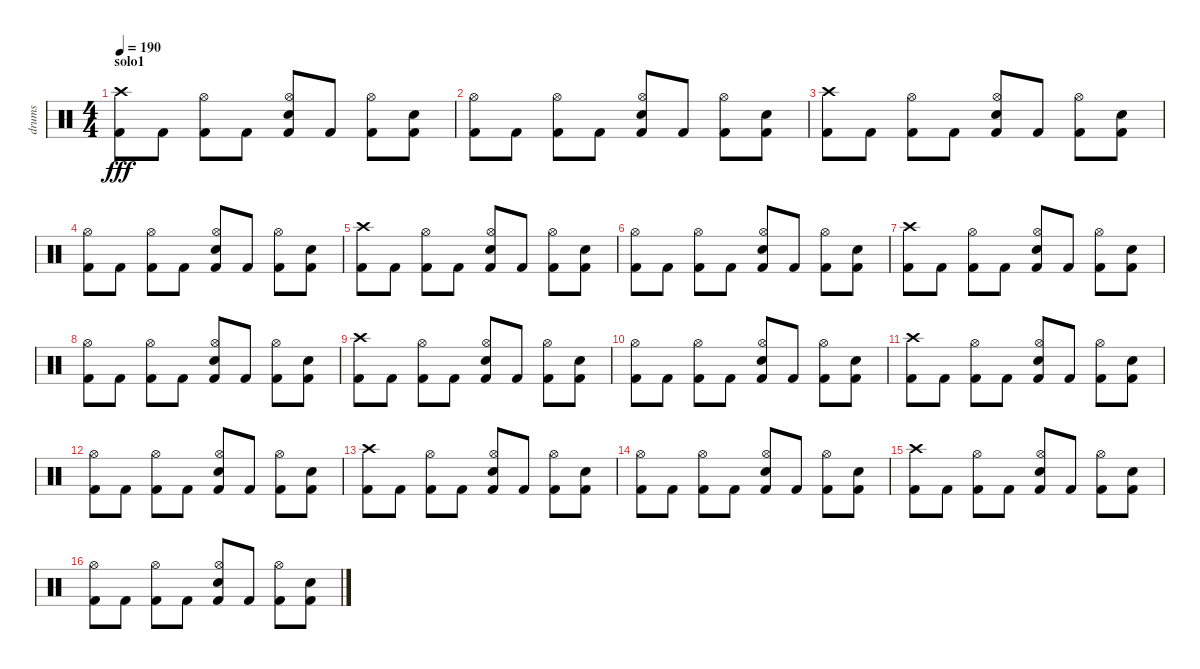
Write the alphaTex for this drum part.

\track ("drums" "drums") {instrument percussion}
\staff {score}
\articulation defaults
\ts (4 4)
\section ("" "solo1")
\tempo 190
\clef neutral
\ks c
("Crash high (hit)" "Kick (hit) 2").8{dy fff} "Kick (hit) 2".8 ("Hi-Hat (open)" "Kick (hit) 2").8 "Kick (hit) 2".8 ("Hi-Hat (open)" "Snare (hit) 2" "Kick (hit) 2").8 "Kick (hit) 2".8 ("Hi-Hat (open)" "Kick (hit) 2").8 ("Snare (hit) 2" "Kick (hit) 2").8 |
("Hi-Hat (open)" "Kick (hit) 2").8 "Kick (hit) 2".8 ("Hi-Hat (open)" "Kick (hit) 2").8 "Kick (hit) 2".8 ("Hi-Hat (open)" "Snare (hit) 2" "Kick (hit) 2").8 "Kick (hit) 2".8 ("Hi-Hat (open)" "Kick (hit) 2").8 ("Snare (hit) 2" "Kick (hit) 2").8 |
("Crash high (hit)" "Kick (hit) 2").8 "Kick (hit) 2".8 ("Hi-Hat (open)" "Kick (hit) 2").8 "Kick (hit) 2".8 ("Hi-Hat (open)" "Snare (hit) 2" "Kick (hit) 2").8 "Kick (hit) 2".8 ("Hi-Hat (open)" "Kick (hit) 2").8 ("Snare (hit) 2" "Kick (hit) 2").8 |
("Hi-Hat (open)" "Kick (hit) 2").8 "Kick (hit) 2".8 ("Hi-Hat (open)" "Kick (hit) 2").8 "Kick (hit) 2".8 ("Hi-Hat (open)" "Snare (hit) 2" "Kick (hit) 2").8 "Kick (hit) 2".8 ("Hi-Hat (open)" "Kick (hit) 2").8 ("Snare (hit) 2" "Kick (hit) 2").8 |
("Crash high (hit)" "Kick (hit) 2").8 "Kick (hit) 2".8 ("Hi-Hat (open)" "Kick (hit) 2").8 "Kick (hit) 2".8 ("Hi-Hat (open)" "Snare (hit) 2" "Kick (hit) 2").8 "Kick (hit) 2".8 ("Hi-Hat (open)" "Kick (hit) 2").8 ("Snare (hit) 2" "Kick (hit) 2").8 |
("Hi-Hat (open)" "Kick (hit) 2").8 "Kick (hit) 2".8 ("Hi-Hat (open)" "Kick (hit) 2").8 "Kick (hit) 2".8 ("Hi-Hat (open)" "Snare (hit) 2" "Kick (hit) 2").8 "Kick (hit) 2".8 ("Hi-Hat (open)" "Kick (hit) 2").8 ("Snare (hit) 2" "Kick (hit) 2").8 |
("Crash high (hit)" "Kick (hit) 2").8 "Kick (hit) 2".8 ("Hi-Hat (open)" "Kick (hit) 2").8 "Kick (hit) 2".8 ("Hi-Hat (open)" "Snare (hit) 2" "Kick (hit) 2").8 "Kick (hit) 2".8 ("Hi-Hat (open)" "Kick (hit) 2").8 ("Snare (hit) 2" "Kick (hit) 2").8 |
("Hi-Hat (open)" "Kick (hit) 2").8 "Kick (hit) 2".8 ("Hi-Hat (open)" "Kick (hit) 2").8 "Kick (hit) 2".8 ("Hi-Hat (open)" "Snare (hit) 2" "Kick (hit) 2").8 "Kick (hit) 2".8 ("Hi-Hat (open)" "Kick (hit) 2").8 ("Snare (hit) 2" "Kick (hit) 2").8 |
("Crash high (hit)" "Kick (hit) 2").8 "Kick (hit) 2".8 ("Hi-Hat (open)" "Kick (hit) 2").8 "Kick (hit) 2".8 ("Hi-Hat (open)" "Snare (hit) 2" "Kick (hit) 2").8 "Kick (hit) 2".8 ("Hi-Hat (open)" "Kick (hit) 2").8 ("Snare (hit) 2" "Kick (hit) 2").8 |
("Hi-Hat (open)" "Kick (hit) 2").8 "Kick (hit) 2".8 ("Hi-Hat (open)" "Kick (hit) 2").8 "Kick (hit) 2".8 ("Hi-Hat (open)" "Snare (hit) 2" "Kick (hit) 2").8 "Kick (hit) 2".8 ("Hi-Hat (open)" "Kick (hit) 2").8 ("Snare (hit) 2" "Kick (hit) 2").8 |
("Crash high (hit)" "Kick (hit) 2").8 "Kick (hit) 2".8 ("Hi-Hat (open)" "Kick (hit) 2").8 "Kick (hit) 2".8 ("Hi-Hat (open)" "Snare (hit) 2" "Kick (hit) 2").8 "Kick (hit) 2".8 ("Hi-Hat (open)" "Kick (hit) 2").8 ("Snare (hit) 2" "Kick (hit) 2").8 |
("Hi-Hat (open)" "Kick (hit) 2").8 "Kick (hit) 2".8 ("Hi-Hat (open)" "Kick (hit) 2").8 "Kick (hit) 2".8 ("Hi-Hat (open)" "Snare (hit) 2" "Kick (hit) 2").8 "Kick (hit) 2".8 ("Hi-Hat (open)" "Kick (hit) 2").8 ("Snare (hit) 2" "Kick (hit) 2").8 |
("Crash high (hit)" "Kick (hit) 2").8 "Kick (hit) 2".8 ("Hi-Hat (open)" "Kick (hit) 2").8 "Kick (hit) 2".8 ("Hi-Hat (open)" "Snare (hit) 2" "Kick (hit) 2").8 "Kick (hit) 2".8 ("Hi-Hat (open)" "Kick (hit) 2").8 ("Snare (hit) 2" "Kick (hit) 2").8 |
("Hi-Hat (open)" "Kick (hit) 2").8 "Kick (hit) 2".8 ("Hi-Hat (open)" "Kick (hit) 2").8 "Kick (hit) 2".8 ("Hi-Hat (open)" "Snare (hit) 2" "Kick (hit) 2").8 "Kick (hit) 2".8 ("Hi-Hat (open)" "Kick (hit) 2").8 ("Snare (hit) 2" "Kick (hit) 2").8 |
("Crash high (hit)" "Kick (hit) 2").8 "Kick (hit) 2".8 ("Hi-Hat (open)" "Kick (hit) 2").8 "Kick (hit) 2".8 ("Hi-Hat (open)" "Snare (hit) 2" "Kick (hit) 2").8 "Kick (hit) 2".8 ("Hi-Hat (open)" "Kick (hit) 2").8 ("Snare (hit) 2" "Kick (hit) 2").8 |
("Hi-Hat (open)" "Kick (hit) 2").8 "Kick (hit) 2".8 ("Hi-Hat (open)" "Kick (hit) 2").8 "Kick (hit) 2".8 ("Hi-Hat (open)" "Snare (hit) 2" "Kick (hit) 2").8 "Kick (hit) 2".8 ("Hi-Hat (open)" "Kick (hit) 2").8 ("Snare (hit) 2" "Kick (hit) 2").8
